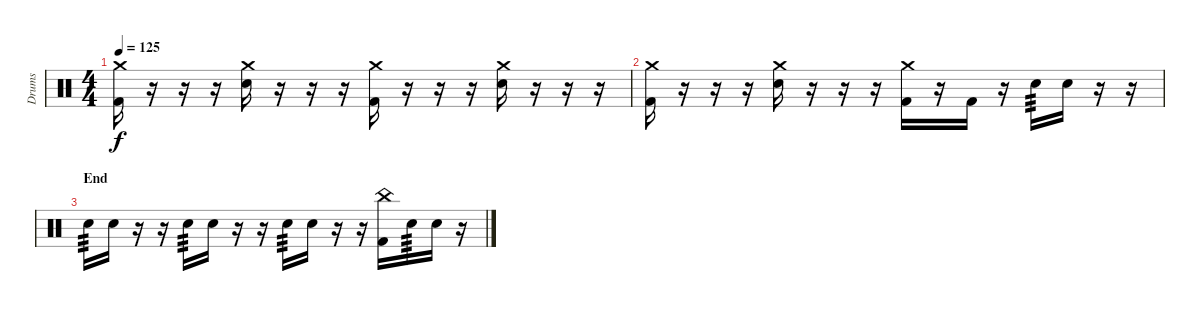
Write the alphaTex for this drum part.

\track ("Drums" "Drums") {instrument percussion}
\staff {score}
\articulation defaults
\ts (4 4)
\tempo 125
\clef neutral
\ks c
("Crash medium (hit)" "Kick (hit) 2").16{dy f} r.16 r.16 r.16 ("Crash medium (hit)" "Electric Snare (hit)").16 r.16 r.16 r.16 ("Crash medium (hit)" "Kick (hit) 2").16 r.16 r.16 r.16 ("Crash medium (hit)" "Electric Snare (hit)").16 r.16 r.16 r.16 |
("Crash medium (hit)" "Kick (hit) 2").16 r.16 r.16 r.16 ("Crash medium (hit)" "Electric Snare (hit)").16 r.16 r.16 r.16 ("Crash medium (hit)" "Kick (hit) 2").16 r.16 "Kick (hit) 2".16 r.16 "Electric Snare (hit)".16{tp 3} "Electric Snare (hit)".16 r.16 r.16 |
\section ("" "End")
"Electric Snare (hit)".16{tp 3} "Electric Snare (hit)".16 r.16 r.16 "Electric Snare (hit)".16{tp 3} "Electric Snare (hit)".16 r.16 r.16 "Electric Snare (hit)".16{tp 3} "Electric Snare (hit)".16 r.16 r.16 ("China (hit)" "Kick (hit) 2").16 "Electric Snare (hit)".16{tp 3} "Electric Snare (hit)".16 r.16
